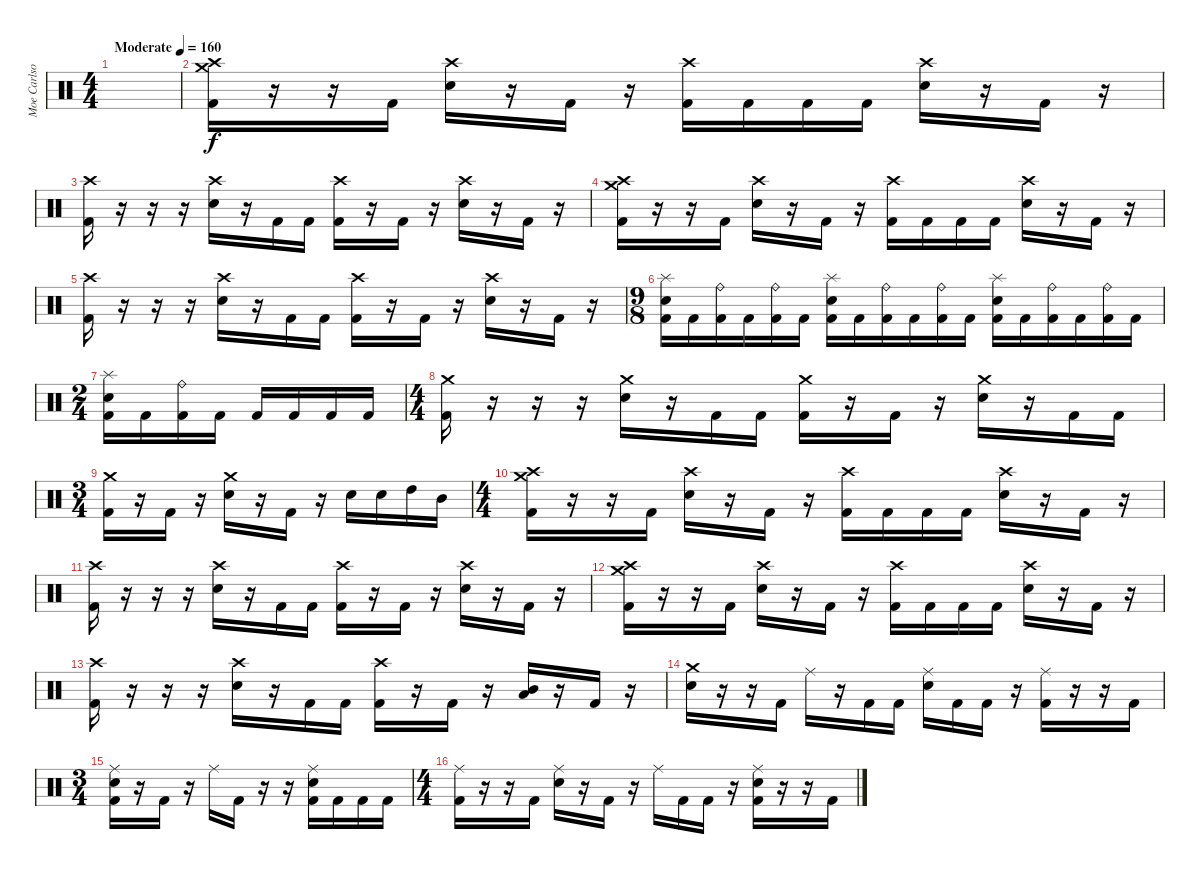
\track ("Moe Carlson" "Moe Carlso") {instrument percussion}
\staff {score}
\articulation defaults
\ts (4 4)
\tempo (160 "Moderate")
\clef neutral
\ks c
|
("Crash high (hit)" "Crash medium (hit)" "Kick (hit) 2").16 r.16 r.16 "Kick (hit) 2".16 ("Crash high (hit)" "Electric Snare (hit)").16 r.16 "Kick (hit) 2".16 r.16 ("Crash high (hit)" "Kick (hit) 2").16 "Kick (hit) 2".16 "Kick (hit) 2".16 "Kick (hit) 2".16 ("Crash high (hit)" "Electric Snare (hit)").16 r.16 "Kick (hit) 2".16 r.16 |
("Crash high (hit)" "Kick (hit) 2").16 r.16 r.16 r.16 ("Crash high (hit)" "Electric Snare (hit)").16 r.16 "Kick (hit) 2".16 "Kick (hit) 2".16 ("Crash high (hit)" "Kick (hit) 2").16 r.16 "Kick (hit) 2".16 r.16 ("Crash high (hit)" "Electric Snare (hit)").16 r.16 "Kick (hit) 2".16 r.16 |
("Crash high (hit)" "Crash medium (hit)" "Kick (hit) 2").16 r.16 r.16 "Kick (hit) 2".16 ("Crash high (hit)" "Electric Snare (hit)").16 r.16 "Kick (hit) 2".16 r.16 ("Crash high (hit)" "Kick (hit) 2").16 "Kick (hit) 2".16 "Kick (hit) 2".16 "Kick (hit) 2".16 ("Crash high (hit)" "Electric Snare (hit)").16 r.16 "Kick (hit) 2".16 r.16 |
("Crash high (hit)" "Kick (hit) 2").16 r.16 r.16 r.16 ("Crash high (hit)" "Electric Snare (hit)").16 r.16 "Kick (hit) 2".16 "Kick (hit) 2".16 ("Crash high (hit)" "Kick (hit) 2").16 r.16 "Kick (hit) 2".16 r.16 ("Crash high (hit)" "Electric Snare (hit)").16 r.16 "Kick (hit) 2".16 r.16 |
\ts (9 8)
("Splash (hit)" "Electric Snare (hit)" "Kick (hit) 2").16 "Kick (hit) 2".16 ("Ride (bell)" "Kick (hit) 2").16 "Kick (hit) 2".16 ("Ride (bell)" "Kick (hit) 2").16 "Kick (hit) 2".16 ("Splash (hit)" "Electric Snare (hit)" "Kick (hit) 2").16 "Kick (hit) 2".16 ("Ride (bell)" "Kick (hit) 2").16 "Kick (hit) 2".16 ("Ride (bell)" "Kick (hit) 2").16 "Kick (hit) 2".16 ("Splash (hit)" "Electric Snare (hit)" "Kick (hit) 2").16 "Kick (hit) 2".16 ("Ride (bell)" "Kick (hit) 2").16 "Kick (hit) 2".16 ("Ride (bell)" "Kick (hit) 2").16 "Kick (hit) 2".16 |
\ts (2 4)
("Splash (hit)" "Electric Snare (hit)" "Kick (hit) 2").16 "Kick (hit) 2".16 ("Ride (bell)" "Kick (hit) 2").16 "Kick (hit) 2".16 "Kick (hit) 2".16 "Kick (hit) 2".16 "Kick (hit) 2".16 "Kick (hit) 2".16 |
\ts (4 4)
("Crash medium (hit)" "Kick (hit) 2").16 r.16 r.16 r.16 ("Crash medium (hit)" "Electric Snare (hit)").16 r.16 "Kick (hit) 2".16 "Kick (hit) 2".16 ("Crash medium (hit)" "Kick (hit) 2").16 r.16 "Kick (hit) 2".16 r.16 ("Crash medium (hit)" "Electric Snare (hit)").16 r.16 "Kick (hit) 2".16 "Kick (hit) 2".16 |
\ts (3 4)
("Crash medium (hit)" "Kick (hit) 2").16 r.16 "Kick (hit) 2".16 r.16 ("Crash medium (hit)" "Electric Snare (hit)").16 r.16 "Kick (hit) 2".16 r.16 "Electric Snare (hit)".16 "Electric Snare (hit)".16 "High Tom (hit)".16 "Mid Tom (hit)".16 |
\ts (4 4)
("Crash high (hit)" "Crash medium (hit)" "Kick (hit) 2").16 r.16 r.16 "Kick (hit) 2".16 ("Crash high (hit)" "Electric Snare (hit)").16 r.16 "Kick (hit) 2".16 r.16 ("Crash high (hit)" "Kick (hit) 2").16 "Kick (hit) 2".16 "Kick (hit) 2".16 "Kick (hit) 2".16 ("Crash high (hit)" "Electric Snare (hit)").16 r.16 "Kick (hit) 2".16 r.16 |
("Crash high (hit)" "Kick (hit) 2").16 r.16 r.16 r.16 ("Crash high (hit)" "Electric Snare (hit)").16 r.16 "Kick (hit) 2".16 "Kick (hit) 2".16 ("Crash high (hit)" "Kick (hit) 2").16 r.16 "Kick (hit) 2".16 r.16 ("Crash high (hit)" "Electric Snare (hit)").16 r.16 "Kick (hit) 2".16 r.16 |
("Crash high (hit)" "Crash medium (hit)" "Kick (hit) 2").16 r.16 r.16 "Kick (hit) 2".16 ("Crash high (hit)" "Electric Snare (hit)").16 r.16 "Kick (hit) 2".16 r.16 ("Crash high (hit)" "Kick (hit) 2").16 "Kick (hit) 2".16 "Kick (hit) 2".16 "Kick (hit) 2".16 ("Crash high (hit)" "Electric Snare (hit)").16 r.16 "Kick (hit) 2".16 r.16 |
("Crash high (hit)" "Kick (hit) 2").16 r.16 r.16 r.16 ("Crash high (hit)" "Electric Snare (hit)").16 r.16 "Kick (hit) 2".16 "Kick (hit) 2".16 ("Crash high (hit)" "Kick (hit) 2").16 r.16 "Kick (hit) 2".16 r.16 ("Mid Tom (hit)" "Low Tom (hit)").16 r.16 "Kick (hit) 2".16 r.16 |
("Crash medium (hit)" "Electric Snare (hit)").16 r.16 r.16 "Kick (hit) 2".16 "Ride (middle)".16 r.16 "Kick (hit) 2".16 "Kick (hit) 2".16 ("Ride (middle)" "Electric Snare (hit)").16 "Kick (hit) 2".16 "Kick (hit) 2".16 r.16 ("Ride (middle)" "Kick (hit) 2").16 r.16 r.16 "Kick (hit) 2".16 |
\ts (3 4)
("Ride (middle)" "Electric Snare (hit)" "Kick (hit) 2").16 r.16 "Kick (hit) 2".16 r.16 "Ride (middle)".16 "Kick (hit) 2".16 r.16 r.16 ("Ride (middle)" "Electric Snare (hit)" "Kick (hit) 2").16 "Kick (hit) 2".16 "Kick (hit) 2".16 "Kick (hit) 2".16 |
\ts (4 4)
("Ride (middle)" "Kick (hit) 2").16 r.16 r.16 "Kick (hit) 2".16 ("Ride (middle)" "Electric Snare (hit)").16 r.16 "Kick (hit) 2".16 r.16 "Ride (middle)".16 "Kick (hit) 2".16 "Kick (hit) 2".16 r.16 ("Ride (middle)" "Electric Snare (hit)" "Kick (hit) 2").16 r.16 r.16 "Kick (hit) 2".16
